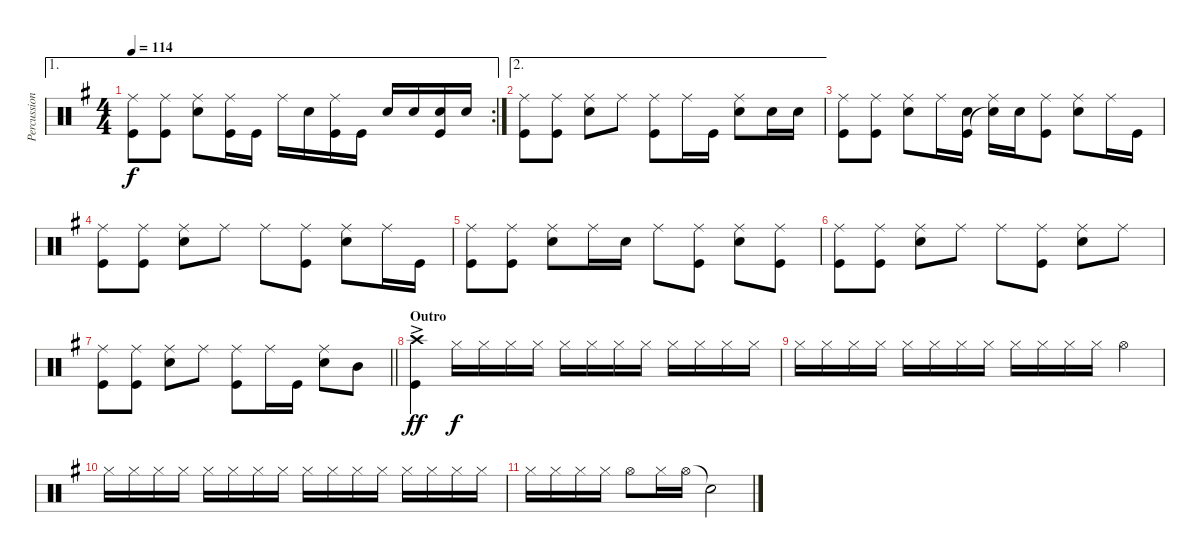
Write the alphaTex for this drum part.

\track ("Percussion" "Percussion") {instrument percussion}
\staff {score}
\articulation defaults
\ae 1
\rc 2
\ts (4 4)
\tempo 114
\clef neutral
\ks g
("Ride (middle)" "Kick (hit)").8{dy f} ("Ride (middle)" "Kick (hit)").8 ("Ride (middle)" "Snare (hit) 2").8 ("Ride (middle)" "Kick (hit)").16 "Kick (hit)".16 "Ride (middle)".16 "Snare (hit) 2".16 ("Ride (middle)" "Kick (hit)").16 "Kick (hit)".16 "Snare (hit) 2".16 "Snare (hit) 2".16 ("Snare (hit) 2" "Kick (hit)").16 "Snare (hit) 2".16 |
\ae 2
("Ride (middle)" "Kick (hit)").8 ("Ride (middle)" "Kick (hit)").8 ("Ride (middle)" "Snare (hit) 2").8 "Ride (middle)".8 ("Ride (middle)" "Kick (hit)").8 "Ride (middle)".16 "Kick (hit)".16 ("Ride (middle)" "Snare (hit) 2").8 "Snare (hit) 2".16 "Snare (hit) 2".16 |
("Ride (middle)" "Kick (hit)").8 ("Ride (middle)" "Kick (hit)").8 ("Ride (middle)" "Snare (hit) 2").8 "Ride (middle)".16 ("Snare (hit) 2" "Kick (hit)").16 ("Ride (middle)" "Snare (hit)"{t}).16 "Snare (hit) 2".16 ("Ride (middle)" "Kick (hit)").8 ("Ride (middle)" "Snare (hit) 2").8 "Ride (middle)".16 "Kick (hit)".16 |
("Ride (middle)" "Kick (hit)").8 ("Ride (middle)" "Kick (hit)").8 ("Ride (middle)" "Snare (hit) 2").8 "Ride (middle)".8 "Ride (middle)".8 ("Ride (middle)" "Kick (hit)").8 ("Ride (middle)" "Snare (hit) 2").8 "Ride (middle)".16 "Kick (hit)".16 |
("Ride (middle)" "Kick (hit)").8 ("Ride (middle)" "Kick (hit)").8 ("Ride (middle)" "Snare (hit) 2").8 "Ride (middle)".16 "Snare (hit) 2".16 "Ride (middle)".8 ("Ride (middle)" "Kick (hit)").8 ("Ride (middle)" "Snare (hit) 2").8 ("Ride (middle)" "Kick (hit)").8 |
("Ride (middle)" "Kick (hit)").8 ("Ride (middle)" "Kick (hit)").8 ("Ride (middle)" "Snare (hit) 2").8 "Ride (middle)".8 "Ride (middle)".8 ("Ride (middle)" "Kick (hit)").8 ("Ride (middle)" "Snare (hit) 2").8 "Ride (middle)".8 |
\barLineRight lightlight
("Ride (middle)" "Kick (hit)").8 ("Ride (middle)" "Kick (hit)").8 ("Ride (middle)" "Snare (hit) 2").8 "Ride (middle)".8 ("Ride (middle)" "Kick (hit)").8 "Ride (middle)".16 "Kick (hit)".16 ("Ride (middle)" "Snare (hit) 2").8 "Mid Tom (hit)".8 |
\section ("" "Outro")
("Crash high (hit)"{ac} "Kick (hit)").4{dy ff} "Hi-Hat (closed)".16{dy f} "Hi-Hat (closed)".16 "Hi-Hat (closed)".16 "Hi-Hat (closed)".16 "Hi-Hat (closed)".16 "Hi-Hat (closed)".16 "Hi-Hat (closed)".16 "Hi-Hat (closed)".16 "Hi-Hat (closed)".16 "Hi-Hat (closed)".16 "Hi-Hat (closed)".16 "Hi-Hat (closed)".16 |
"Hi-Hat (closed)".16 "Hi-Hat (closed)".16 "Hi-Hat (closed)".16 "Hi-Hat (closed)".16 "Hi-Hat (closed)".16 "Hi-Hat (closed)".16 "Hi-Hat (closed)".16 "Hi-Hat (closed)".16 "Hi-Hat (closed)".16 "Hi-Hat (closed)".16 "Hi-Hat (closed)".16 "Hi-Hat (closed)".16 "Hi-Hat (open)".4 |
"Hi-Hat (closed)".16 "Hi-Hat (closed)".16 "Hi-Hat (closed)".16 "Hi-Hat (closed)".16 "Hi-Hat (closed)".16 "Hi-Hat (closed)".16 "Hi-Hat (closed)".16 "Hi-Hat (closed)".16 "Hi-Hat (closed)".16 "Hi-Hat (closed)".16 "Hi-Hat (closed)".16 "Hi-Hat (closed)".16 "Hi-Hat (closed)".16 "Hi-Hat (closed)".16 "Hi-Hat (closed)".16 "Hi-Hat (closed)".16 |
"Hi-Hat (closed)".16 "Hi-Hat (closed)".16 "Hi-Hat (closed)".16 "Hi-Hat (closed)".16 "Hi-Hat (open)".8 "Hi-Hat (closed)".16 "Hi-Hat (open)".16 "Snare (hit)"{t}.2
